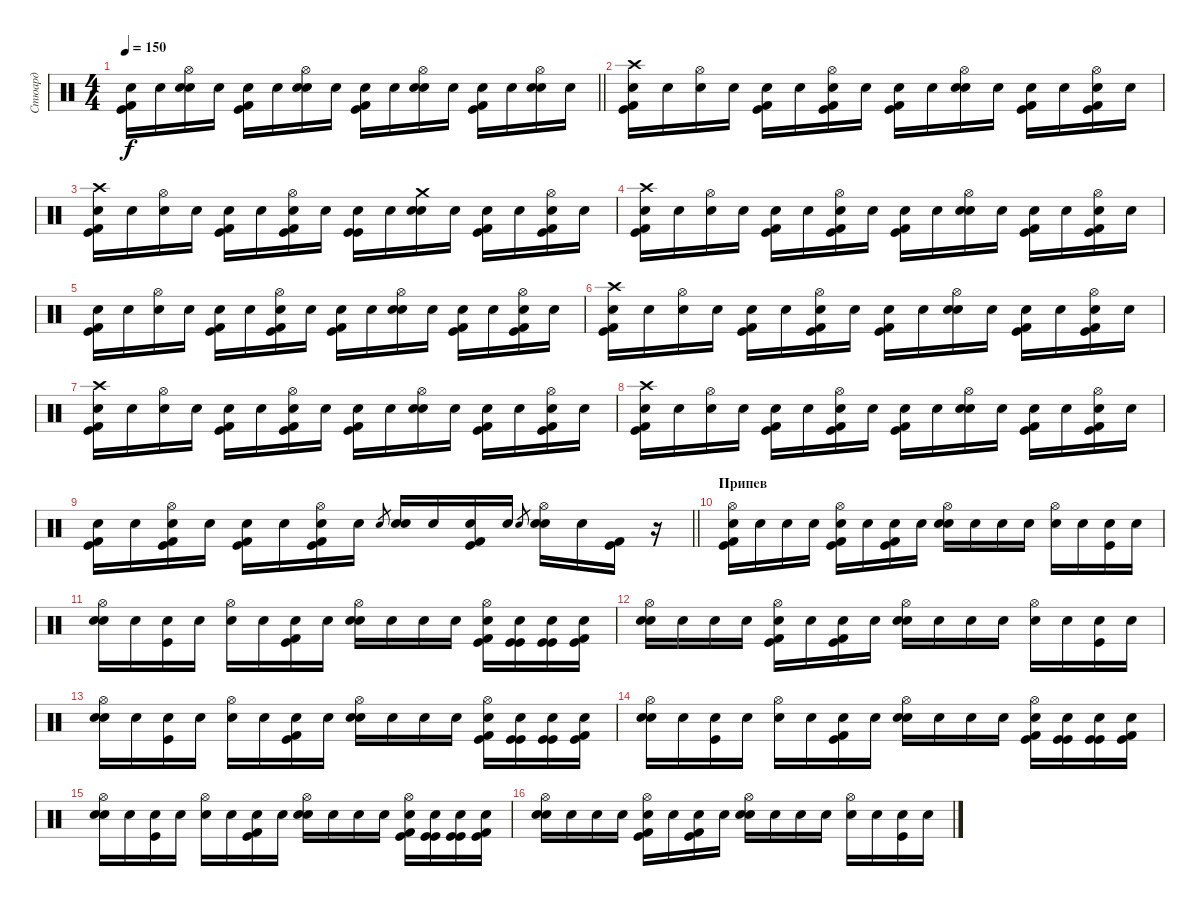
\track ("Стюард" "Стюард") {instrument percussion}
\staff {score}
\articulation defaults
\ts (4 4)
\tempo 150
\clef neutral
\barLineRight lightlight
\ks c
("Kick (hit) 2" "Kick (hit)" "Snare (hit)"{x}).16{dy f} "Snare (hit)"{x}.16 ("Hi-Hat (open)" "Snare (hit) 2" "Snare (hit)"{x}).16 "Snare (hit)"{x}.16 ("Kick (hit) 2" "Kick (hit)" "Snare (hit)"{x}).16 "Snare (hit)"{x}.16 ("Hi-Hat (open)" "Snare (hit) 2" "Snare (hit)"{x}).16 "Snare (hit)"{x}.16 ("Kick (hit) 2" "Kick (hit)" "Snare (hit)"{x}).16 "Snare (hit)"{x}.16 ("Hi-Hat (open)" "Snare (hit) 2" "Snare (hit)"{x}).16 "Snare (hit)"{x}.16 ("Kick (hit) 2" "Kick (hit)" "Snare (hit)"{x}).16 "Snare (hit)"{x}.16 ("Hi-Hat (open)" "Snare (hit) 2" "Snare (hit)"{x}).16 "Snare (hit)"{x}.16 |
\section ("" "")
("Crash high (hit)" "Kick (hit) 2" "Kick (hit)" "Snare (hit)"{x}).16 "Snare (hit)"{x}.16 ("Hi-Hat (open)" "Snare (hit)"{x}).16 "Snare (hit)"{x}.16 ("Kick (hit) 2" "Kick (hit)" "Snare (hit)"{x}).16 "Snare (hit)"{x}.16 ("Hi-Hat (open)" "Kick (hit) 2" "Kick (hit)" "Snare (hit)"{x}).16 "Snare (hit)"{x}.16 ("Kick (hit) 2" "Kick (hit)" "Snare (hit)"{x}).16 "Snare (hit)"{x}.16 ("Hi-Hat (open)" "Snare (hit) 2" "Snare (hit)"{x}).16 "Snare (hit)"{x}.16 ("Kick (hit) 2" "Kick (hit)" "Snare (hit)"{x}).16 "Snare (hit)"{x}.16 ("Hi-Hat (open)" "Kick (hit)" "Kick (hit) 2" "Snare (hit)"{x}).16 "Snare (hit)"{x}.16 |
("Crash high (hit)" "Kick (hit) 2" "Kick (hit)" "Snare (hit)"{x}).16 "Snare (hit)"{x}.16 ("Hi-Hat (open)" "Snare (hit)"{x}).16 "Snare (hit)"{x}.16 ("Kick (hit) 2" "Kick (hit)" "Snare (hit)"{x}).16 "Snare (hit)"{x}.16 ("Hi-Hat (open)" "Kick (hit) 2" "Kick (hit)" "Snare (hit)"{x}).16 "Snare (hit)"{x}.16 ("Kick (hit)" "Kick (hit)" "Snare (hit)"{x}).16 "Snare (hit)"{x}.16 ("Crash medium (hit)" "Snare (hit) 2" "Snare (hit)"{x}).16 "Snare (hit)"{x}.16 ("Kick (hit) 2" "Kick (hit)" "Snare (hit)"{x}).16 "Snare (hit)"{x}.16 ("Hi-Hat (open)" "Kick (hit) 2" "Kick (hit)" "Snare (hit)"{x}).16 "Snare (hit)"{x}.16 |
("Crash high (hit)" "Kick (hit) 2" "Kick (hit)" "Snare (hit)"{x}).16 "Snare (hit)"{x}.16 ("Hi-Hat (open)" "Snare (hit)"{x}).16 "Snare (hit)"{x}.16 ("Kick (hit) 2" "Kick (hit)" "Snare (hit)"{x}).16 "Snare (hit)"{x}.16 ("Hi-Hat (open)" "Kick (hit) 2" "Kick (hit)" "Snare (hit)"{x}).16 "Snare (hit)"{x}.16 ("Kick (hit) 2" "Kick (hit)" "Snare (hit)"{x}).16 "Snare (hit)"{x}.16 ("Hi-Hat (open)" "Snare (hit) 2" "Snare (hit)"{x}).16 "Snare (hit)"{x}.16 ("Kick (hit) 2" "Kick (hit)" "Snare (hit)"{x}).16 "Snare (hit)"{x}.16 ("Hi-Hat (open)" "Kick (hit)" "Kick (hit) 2" "Snare (hit)"{x}).16 "Snare (hit)"{x}.16 |
("Kick (hit) 2" "Kick (hit)" "Snare (hit)"{x}).16 "Snare (hit)"{x}.16 ("Hi-Hat (open)" "Snare (hit)"{x}).16 "Snare (hit)"{x}.16 ("Kick (hit) 2" "Kick (hit)" "Snare (hit)"{x}).16 "Snare (hit)"{x}.16 ("Hi-Hat (open)" "Kick (hit) 2" "Kick (hit)" "Snare (hit)"{x}).16 "Snare (hit)"{x}.16 ("Kick (hit) 2" "Kick (hit)" "Snare (hit)"{x}).16 "Snare (hit)"{x}.16 ("Hi-Hat (open)" "Snare (hit) 2" "Snare (hit)"{x}).16 "Snare (hit)"{x}.16 ("Kick (hit) 2" "Kick (hit)" "Snare (hit)"{x}).16 "Snare (hit)"{x}.16 ("Hi-Hat (open)" "Kick (hit)" "Kick (hit) 2" "Snare (hit)"{x}).16 "Snare (hit)"{x}.16 |
("Crash high (hit)" "Kick (hit) 2" "Kick (hit)" "Snare (hit)"{x}).16 "Snare (hit)"{x}.16 ("Hi-Hat (open)" "Snare (hit)"{x}).16 "Snare (hit)"{x}.16 ("Kick (hit) 2" "Kick (hit)" "Snare (hit)"{x}).16 "Snare (hit)"{x}.16 ("Hi-Hat (open)" "Kick (hit) 2" "Kick (hit)" "Snare (hit)"{x}).16 "Snare (hit)"{x}.16 ("Kick (hit) 2" "Kick (hit)" "Snare (hit)"{x}).16 "Snare (hit)"{x}.16 ("Hi-Hat (open)" "Snare (hit) 2" "Snare (hit)"{x}).16 "Snare (hit)"{x}.16 ("Kick (hit) 2" "Kick (hit)" "Snare (hit)"{x}).16 "Snare (hit)"{x}.16 ("Hi-Hat (open)" "Kick (hit)" "Kick (hit) 2" "Snare (hit)"{x}).16 "Snare (hit)"{x}.16 |
("Crash high (hit)" "Kick (hit) 2" "Kick (hit)" "Snare (hit)"{x}).16 "Snare (hit)"{x}.16 ("Hi-Hat (open)" "Snare (hit)"{x}).16 "Snare (hit)"{x}.16 ("Kick (hit) 2" "Kick (hit)" "Snare (hit)"{x}).16 "Snare (hit)"{x}.16 ("Hi-Hat (open)" "Kick (hit) 2" "Kick (hit)" "Snare (hit)"{x}).16 "Snare (hit)"{x}.16 ("Kick (hit) 2" "Kick (hit)" "Snare (hit)"{x}).16 "Snare (hit)"{x}.16 ("Hi-Hat (open)" "Snare (hit) 2" "Snare (hit)"{x}).16 "Snare (hit)"{x}.16 ("Kick (hit) 2" "Kick (hit)" "Snare (hit)"{x}).16 "Snare (hit)"{x}.16 ("Hi-Hat (open)" "Kick (hit)" "Kick (hit) 2" "Snare (hit)"{x}).16 "Snare (hit)"{x}.16 |
("Crash high (hit)" "Kick (hit) 2" "Kick (hit)" "Snare (hit)"{x}).16 "Snare (hit)"{x}.16 ("Hi-Hat (open)" "Snare (hit)"{x}).16 "Snare (hit)"{x}.16 ("Kick (hit) 2" "Kick (hit)" "Snare (hit)"{x}).16 "Snare (hit)"{x}.16 ("Hi-Hat (open)" "Kick (hit) 2" "Kick (hit)" "Snare (hit)"{x}).16 "Snare (hit)"{x}.16 ("Kick (hit) 2" "Kick (hit)" "Snare (hit)"{x}).16 "Snare (hit)"{x}.16 ("Hi-Hat (open)" "Snare (hit) 2" "Snare (hit)"{x}).16 "Snare (hit)"{x}.16 ("Kick (hit) 2" "Kick (hit)" "Snare (hit)"{x}).16 "Snare (hit)"{x}.16 ("Hi-Hat (open)" "Kick (hit)" "Kick (hit) 2" "Snare (hit)"{x}).16 "Snare (hit)"{x}.16 |
\barLineRight lightlight
("Kick (hit) 2" "Kick (hit)" "Snare (hit)"{x}).16 "Snare (hit)"{x}.16 ("Hi-Hat (open)" "Kick (hit)" "Kick (hit) 2" "Snare (hit)"{x}).16 "Snare (hit)"{x}.16 ("Kick (hit) 2" "Kick (hit)" "Snare (hit)"{x}).16 "Snare (hit)"{x}.16 ("Hi-Hat (open)" "Kick (hit) 2" "Kick (hit)" "Snare (hit)"{x}).16 "Snare (hit)"{x}.16 "Snare (hit) 2".8{gr} ("Snare (hit) 2" "Snare (hit)"{x}).16 "Snare (hit)"{x}.16 ("Kick (hit) 2" "Kick (hit)" "Snare (hit)"{x}).16 "Snare (hit)"{x}.16 "Snare (hit) 2".8{gr} ("Hi-Hat (open)" "Snare (hit) 2" "Snare (hit)"{x}).16 "Snare (hit)"{x}.16 ("Kick (hit) 2" "Kick (hit)").16 r.16 |
\section ("" "Припев")
("Hi-Hat (open)" "Kick (hit)" "Kick (hit) 2" "Snare (hit)"{x}).16 "Snare (hit)"{x}.16 "Snare (hit)"{x}.16 "Snare (hit)"{x}.16 ("Hi-Hat (open)" "Kick (hit) 2" "Kick (hit)" "Snare (hit)"{x}).16 "Snare (hit)"{x}.16 ("Kick (hit) 2" "Kick (hit)" "Snare (hit)"{x}).16 "Snare (hit)"{x}.16 ("Hi-Hat (open)" "Snare (hit) 2" "Snare (hit)"{x}).16 "Snare (hit)"{x}.16 "Snare (hit)"{x}.16 "Snare (hit)"{x}.16 ("Hi-Hat (open)" "Snare (hit)"{x}).16 "Snare (hit)"{x}.16 ("Kick (hit)" "Snare (hit)"{x}).16 "Snare (hit)"{x}.16 |
("Hi-Hat (open)" "Snare (hit) 2" "Snare (hit)"{x}).16 "Snare (hit)"{x}.16 ("Kick (hit)" "Snare (hit)"{x}).16 "Snare (hit)"{x}.16 ("Hi-Hat (open)" "Snare (hit)"{x}).16 "Snare (hit)"{x}.16 ("Kick (hit) 2" "Kick (hit)" "Snare (hit)"{x}).16 "Snare (hit)"{x}.16 ("Hi-Hat (open)" "Snare (hit) 2" "Snare (hit)"{x}).16 "Snare (hit)"{x}.16 "Snare (hit)"{x}.16 "Snare (hit)"{x}.16 ("Hi-Hat (open)" "Kick (hit) 2" "Kick (hit)" "Snare (hit)"{x}).16 ("Kick (hit)" "Kick (hit)" "Snare (hit)"{x}).16 ("Kick (hit)" "Kick (hit)" "Snare (hit)"{x}).16 ("Kick (hit) 2" "Kick (hit)" "Snare (hit)"{x}).16 |
("Hi-Hat (open)" "Snare (hit) 2" "Snare (hit)"{x}).16 "Snare (hit)"{x}.16 "Snare (hit)"{x}.16 "Snare (hit)"{x}.16 ("Hi-Hat (open)" "Kick (hit) 2" "Kick (hit)" "Snare (hit)"{x}).16 "Snare (hit)"{x}.16 ("Kick (hit) 2" "Kick (hit)" "Snare (hit)"{x}).16 "Snare (hit)"{x}.16 ("Hi-Hat (open)" "Snare (hit) 2" "Snare (hit)"{x}).16 "Snare (hit)"{x}.16 "Snare (hit)"{x}.16 "Snare (hit)"{x}.16 ("Hi-Hat (open)" "Snare (hit)"{x}).16 "Snare (hit)"{x}.16 ("Kick (hit)" "Snare (hit)"{x}).16 "Snare (hit)"{x}.16 |
("Hi-Hat (open)" "Snare (hit) 2" "Snare (hit)"{x}).16 "Snare (hit)"{x}.16 ("Kick (hit)" "Snare (hit)"{x}).16 "Snare (hit)"{x}.16 ("Hi-Hat (open)" "Snare (hit)"{x}).16 "Snare (hit)"{x}.16 ("Kick (hit) 2" "Kick (hit)" "Snare (hit)"{x}).16 "Snare (hit)"{x}.16 ("Hi-Hat (open)" "Snare (hit) 2" "Snare (hit)"{x}).16 "Snare (hit)"{x}.16 "Snare (hit)"{x}.16 "Snare (hit)"{x}.16 ("Hi-Hat (open)" "Kick (hit) 2" "Kick (hit)" "Snare (hit)"{x}).16 ("Kick (hit)" "Kick (hit)" "Snare (hit)"{x}).16 ("Kick (hit)" "Kick (hit)" "Snare (hit)"{x}).16 ("Kick (hit) 2" "Kick (hit)" "Snare (hit)"{x}).16 |
("Hi-Hat (open)" "Snare (hit) 2" "Snare (hit)"{x}).16 "Snare (hit)"{x}.16 ("Kick (hit)" "Snare (hit)"{x}).16 "Snare (hit)"{x}.16 ("Hi-Hat (open)" "Snare (hit)"{x}).16 "Snare (hit)"{x}.16 ("Kick (hit) 2" "Kick (hit)" "Snare (hit)"{x}).16 "Snare (hit)"{x}.16 ("Hi-Hat (open)" "Snare (hit) 2" "Snare (hit)"{x}).16 "Snare (hit)"{x}.16 "Snare (hit)"{x}.16 "Snare (hit)"{x}.16 ("Hi-Hat (open)" "Kick (hit) 2" "Kick (hit)" "Snare (hit)"{x}).16 ("Kick (hit)" "Kick (hit)" "Snare (hit)"{x}).16 ("Kick (hit)" "Kick (hit)" "Snare (hit)"{x}).16 ("Kick (hit) 2" "Kick (hit)" "Snare (hit)"{x}).16 |
("Hi-Hat (open)" "Snare (hit) 2" "Snare (hit)"{x}).16 "Snare (hit)"{x}.16 ("Kick (hit)" "Snare (hit)"{x}).16 "Snare (hit)"{x}.16 ("Hi-Hat (open)" "Snare (hit)"{x}).16 "Snare (hit)"{x}.16 ("Kick (hit) 2" "Kick (hit)" "Snare (hit)"{x}).16 "Snare (hit)"{x}.16 ("Hi-Hat (open)" "Snare (hit) 2" "Snare (hit)"{x}).16 "Snare (hit)"{x}.16 "Snare (hit)"{x}.16 "Snare (hit)"{x}.16 ("Hi-Hat (open)" "Kick (hit) 2" "Kick (hit)" "Snare (hit)"{x}).16 ("Kick (hit)" "Kick (hit)" "Snare (hit)"{x}).16 ("Kick (hit)" "Kick (hit)" "Snare (hit)"{x}).16 ("Kick (hit) 2" "Kick (hit)" "Snare (hit)"{x}).16 |
("Hi-Hat (open)" "Snare (hit) 2" "Snare (hit)"{x}).16 "Snare (hit)"{x}.16 "Snare (hit)"{x}.16 "Snare (hit)"{x}.16 ("Hi-Hat (open)" "Kick (hit) 2" "Kick (hit)" "Snare (hit)"{x}).16 "Snare (hit)"{x}.16 ("Kick (hit) 2" "Kick (hit)" "Snare (hit)"{x}).16 "Snare (hit)"{x}.16 ("Hi-Hat (open)" "Snare (hit) 2" "Snare (hit)"{x}).16 "Snare (hit)"{x}.16 "Snare (hit)"{x}.16 "Snare (hit)"{x}.16 ("Hi-Hat (open)" "Snare (hit)"{x}).16 "Snare (hit)"{x}.16 ("Kick (hit)" "Snare (hit)"{x}).16 "Snare (hit)"{x}.16
